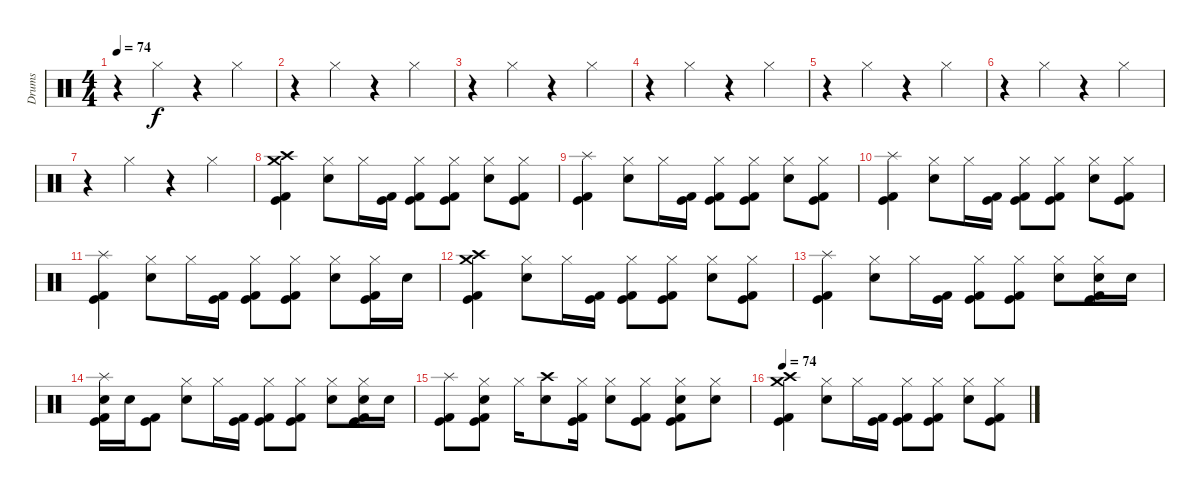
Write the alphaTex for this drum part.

\track ("Drums" "Drums") {instrument percussion}
\staff {score}
\articulation defaults
\ts (4 4)
\tempo 74
\clef neutral
\ks c
r.4{dy f} "Hi-Hat (closed)".4 r.4 "Hi-Hat (closed)".4 |
r.4 "Hi-Hat (closed)".4 r.4 "Hi-Hat (closed)".4 |
r.4 "Hi-Hat (closed)".4 r.4 "Hi-Hat (closed)".4 |
r.4 "Hi-Hat (closed)".4 r.4 "Hi-Hat (closed)".4 |
r.4 "Hi-Hat (closed)".4 r.4 "Hi-Hat (closed)".4 |
r.4 "Hi-Hat (closed)".4 r.4 "Hi-Hat (closed)".4 |
r.4 "Hi-Hat (closed)".4 r.4 "Hi-Hat (closed)".4 |
("Crash medium (hit)" "Crash high (hit)" "Kick (hit) 2" "Kick (hit)").4 ("Hi-Hat (closed)" "Electric Snare (hit)").8 "Hi-Hat (closed)".16 ("Kick (hit) 2" "Kick (hit)").16 ("Hi-Hat (closed)" "Kick (hit) 2" "Kick (hit)").8 ("Hi-Hat (closed)" "Kick (hit)" "Kick (hit) 2").8 ("Hi-Hat (closed)" "Electric Snare (hit)").8 ("Hi-Hat (closed)" "Kick (hit) 2" "Kick (hit)").8 |
("Splash (hit)" "Kick (hit) 2" "Kick (hit)").4 ("Hi-Hat (closed)" "Electric Snare (hit)").8 "Hi-Hat (closed)".16 ("Kick (hit) 2" "Kick (hit)").16 ("Hi-Hat (closed)" "Kick (hit) 2" "Kick (hit)").8 ("Hi-Hat (closed)" "Kick (hit)" "Kick (hit) 2").8 ("Hi-Hat (closed)" "Electric Snare (hit)").8 ("Hi-Hat (closed)" "Kick (hit) 2" "Kick (hit)").8 |
("Splash (hit)" "Kick (hit) 2" "Kick (hit)").4 ("Hi-Hat (closed)" "Electric Snare (hit)").8 "Hi-Hat (closed)".16 ("Kick (hit) 2" "Kick (hit)").16 ("Hi-Hat (closed)" "Kick (hit) 2" "Kick (hit)").8 ("Hi-Hat (closed)" "Kick (hit)" "Kick (hit) 2").8 ("Hi-Hat (closed)" "Electric Snare (hit)").8 ("Hi-Hat (closed)" "Kick (hit) 2" "Kick (hit)").8 |
("Splash (hit)" "Kick (hit) 2" "Kick (hit)").4 ("Hi-Hat (closed)" "Electric Snare (hit)").8 "Hi-Hat (closed)".16 ("Kick (hit) 2" "Kick (hit)").16 ("Hi-Hat (closed)" "Kick (hit) 2" "Kick (hit)").8 ("Hi-Hat (closed)" "Kick (hit)" "Kick (hit) 2").8 ("Hi-Hat (closed)" "Electric Snare (hit)").8 ("Hi-Hat (closed)" "Kick (hit) 2" "Kick (hit)").16 "Electric Snare (hit)".16 |
("Crash medium (hit)" "Crash high (hit)" "Kick (hit) 2" "Kick (hit)").4 ("Hi-Hat (closed)" "Electric Snare (hit)").8 "Hi-Hat (closed)".16 ("Kick (hit) 2" "Kick (hit)").16 ("Hi-Hat (closed)" "Kick (hit) 2" "Kick (hit)").8 ("Hi-Hat (closed)" "Kick (hit)" "Kick (hit) 2").8 ("Hi-Hat (closed)" "Electric Snare (hit)").8 ("Hi-Hat (closed)" "Kick (hit) 2" "Kick (hit)").8 |
("Splash (hit)" "Kick (hit) 2" "Kick (hit)").4 ("Hi-Hat (closed)" "Electric Snare (hit)").8 "Hi-Hat (closed)".16 ("Kick (hit) 2" "Kick (hit)").16 ("Hi-Hat (closed)" "Kick (hit) 2" "Kick (hit)").8 ("Hi-Hat (closed)" "Kick (hit)" "Kick (hit) 2").8 ("Hi-Hat (closed)" "Electric Snare (hit)").8 ("Hi-Hat (closed)" "Electric Snare (hit)" "Kick (hit) 2" "Kick (hit)").16 "Electric Snare (hit)".16 |
("Splash (hit)" "Electric Snare (hit)" "Kick (hit) 2" "Kick (hit)").16 "Electric Snare (hit)".16 ("Kick (hit) 2" "Kick (hit)").8 ("Hi-Hat (closed)" "Electric Snare (hit)").8 "Hi-Hat (closed)".16 ("Kick (hit) 2" "Kick (hit)").16 ("Hi-Hat (closed)" "Kick (hit) 2" "Kick (hit)").8 ("Hi-Hat (closed)" "Kick (hit)" "Kick (hit) 2").8 ("Hi-Hat (closed)" "Electric Snare (hit)").8 ("Hi-Hat (closed)" "Electric Snare (hit)" "Kick (hit) 2" "Kick (hit)").16 "Electric Snare (hit)".16 |
("Splash (hit)" "Kick (hit) 2" "Kick (hit)").8 ("Hi-Hat (closed)" "Electric Snare (hit)" "Kick (hit) 2" "Kick (hit)").8 "Hi-Hat (closed)".16 ("Crash high (hit)" "Electric Snare (hit)").8 ("Hi-Hat (closed)" "Kick (hit)" "Kick (hit) 2").16 ("Hi-Hat (closed)" "Electric Snare (hit)").8 ("Hi-Hat (closed)" "Kick (hit) 2" "Kick (hit)").8 ("Hi-Hat (closed)" "Electric Snare (hit)" "Kick (hit)" "Kick (hit) 2").8 ("Hi-Hat (closed)" "Electric Snare (hit)").8 |
\tempo 74
("Crash medium (hit)" "Crash high (hit)" "Kick (hit) 2" "Kick (hit)").4 ("Hi-Hat (closed)" "Electric Snare (hit)").8 "Hi-Hat (closed)".16 ("Kick (hit) 2" "Kick (hit)").16 ("Hi-Hat (closed)" "Kick (hit) 2" "Kick (hit)").8 ("Hi-Hat (closed)" "Kick (hit)" "Kick (hit) 2").8 ("Hi-Hat (closed)" "Electric Snare (hit)").8 ("Hi-Hat (closed)" "Kick (hit) 2" "Kick (hit)").8
